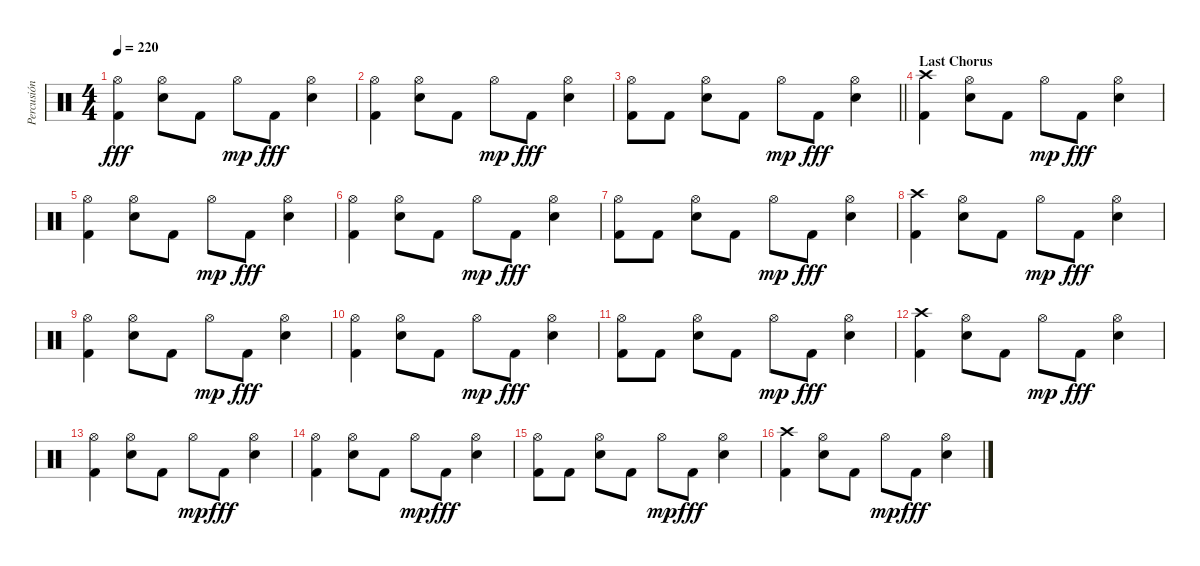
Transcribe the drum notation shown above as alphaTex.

\track ("Percusión" "Percusión") {instrument percussion}
\staff {score}
\articulation defaults
\ts (4 4)
\tempo 220
\clef neutral
\ks c
("Hi-Hat (open)" "Kick (hit) 2").4{dy fff} ("Hi-Hat (open)" "Snare (hit) 2").8 "Kick (hit) 2".8 "Hi-Hat (open)".8{dy mp} "Kick (hit) 2".8{dy fff} ("Hi-Hat (open)" "Snare (hit) 2").4 |
("Hi-Hat (open)" "Kick (hit) 2").4 ("Hi-Hat (open)" "Snare (hit) 2").8 "Kick (hit) 2".8 "Hi-Hat (open)".8{dy mp} "Kick (hit) 2".8{dy fff} ("Hi-Hat (open)" "Snare (hit) 2").4 |
\barLineRight lightlight
("Hi-Hat (open)" "Kick (hit) 2").8 "Kick (hit) 2".8 ("Hi-Hat (open)" "Snare (hit) 2").8 "Kick (hit) 2".8 "Hi-Hat (open)".8{dy mp} "Kick (hit) 2".8{dy fff} ("Hi-Hat (open)" "Snare (hit) 2").4 |
\section ("" "Last Chorus")
("Crash high (hit)" "Kick (hit) 2").4 ("Hi-Hat (open)" "Snare (hit) 2").8 "Kick (hit) 2".8 "Hi-Hat (open)".8{dy mp} "Kick (hit) 2".8{dy fff} ("Hi-Hat (open)" "Snare (hit) 2").4 |
("Hi-Hat (open)" "Kick (hit) 2").4 ("Hi-Hat (open)" "Snare (hit) 2").8 "Kick (hit) 2".8 "Hi-Hat (open)".8{dy mp} "Kick (hit) 2".8{dy fff} ("Hi-Hat (open)" "Snare (hit) 2").4 |
("Hi-Hat (open)" "Kick (hit) 2").4 ("Hi-Hat (open)" "Snare (hit) 2").8 "Kick (hit) 2".8 "Hi-Hat (open)".8{dy mp} "Kick (hit) 2".8{dy fff} ("Hi-Hat (open)" "Snare (hit) 2").4 |
("Hi-Hat (open)" "Kick (hit) 2").8 "Kick (hit) 2".8 ("Hi-Hat (open)" "Snare (hit) 2").8 "Kick (hit) 2".8 "Hi-Hat (open)".8{dy mp} "Kick (hit) 2".8{dy fff} ("Hi-Hat (open)" "Snare (hit) 2").4 |
("Crash high (hit)" "Kick (hit) 2").4 ("Hi-Hat (open)" "Snare (hit) 2").8 "Kick (hit) 2".8 "Hi-Hat (open)".8{dy mp} "Kick (hit) 2".8{dy fff} ("Hi-Hat (open)" "Snare (hit) 2").4 |
("Hi-Hat (open)" "Kick (hit) 2").4 ("Hi-Hat (open)" "Snare (hit) 2").8 "Kick (hit) 2".8 "Hi-Hat (open)".8{dy mp} "Kick (hit) 2".8{dy fff} ("Hi-Hat (open)" "Snare (hit) 2").4 |
("Hi-Hat (open)" "Kick (hit) 2").4 ("Hi-Hat (open)" "Snare (hit) 2").8 "Kick (hit) 2".8 "Hi-Hat (open)".8{dy mp} "Kick (hit) 2".8{dy fff} ("Hi-Hat (open)" "Snare (hit) 2").4 |
("Hi-Hat (open)" "Kick (hit) 2").8 "Kick (hit) 2".8 ("Hi-Hat (open)" "Snare (hit) 2").8 "Kick (hit) 2".8 "Hi-Hat (open)".8{dy mp} "Kick (hit) 2".8{dy fff} ("Hi-Hat (open)" "Snare (hit) 2").4 |
("Crash high (hit)" "Kick (hit) 2").4 ("Hi-Hat (open)" "Snare (hit) 2").8 "Kick (hit) 2".8 "Hi-Hat (open)".8{dy mp} "Kick (hit) 2".8{dy fff} ("Hi-Hat (open)" "Snare (hit) 2").4 |
("Hi-Hat (open)" "Kick (hit) 2").4 ("Hi-Hat (open)" "Snare (hit) 2").8 "Kick (hit) 2".8 "Hi-Hat (open)".8{dy mp} "Kick (hit) 2".8{dy fff} ("Hi-Hat (open)" "Snare (hit) 2").4 |
("Hi-Hat (open)" "Kick (hit) 2").4 ("Hi-Hat (open)" "Snare (hit) 2").8 "Kick (hit) 2".8 "Hi-Hat (open)".8{dy mp} "Kick (hit) 2".8{dy fff} ("Hi-Hat (open)" "Snare (hit) 2").4 |
("Hi-Hat (open)" "Kick (hit) 2").8 "Kick (hit) 2".8 ("Hi-Hat (open)" "Snare (hit) 2").8 "Kick (hit) 2".8 "Hi-Hat (open)".8{dy mp} "Kick (hit) 2".8{dy fff} ("Hi-Hat (open)" "Snare (hit) 2").4 |
("Crash high (hit)" "Kick (hit) 2").4 ("Hi-Hat (open)" "Snare (hit) 2").8 "Kick (hit) 2".8 "Hi-Hat (open)".8{dy mp} "Kick (hit) 2".8{dy fff} ("Hi-Hat (open)" "Snare (hit) 2").4
